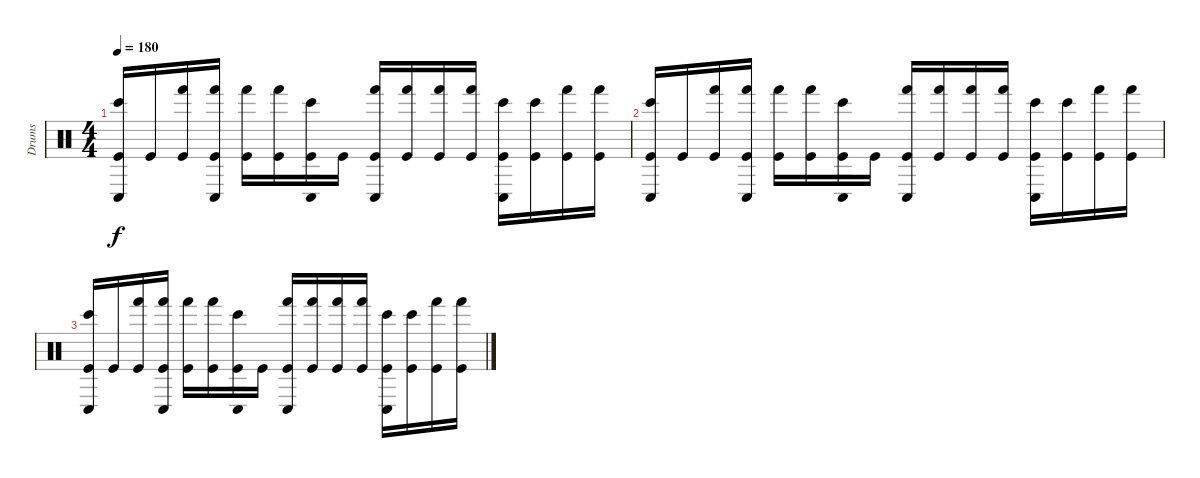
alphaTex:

\track ("Drums" "Drums") {instrument percussion}
\staff {score}
\articulation defaults
\ts (4 4)
\tempo 180
\clef neutral
\ks c
("Bongo High (hit)" "Conga low (hit)" "Kick (hit)").16{dy f} "Kick (hit)".16 ("Hand (hit)" "Kick (hit)").16 ("Hand (hit)" "Conga low (hit)" "Kick (hit)").16 ("Hand (hit)" "Kick (hit)").16 ("Hand (hit)" "Kick (hit)").16 ("Bongo High (hit)" "Conga low (hit)" "Kick (hit)").16 "Kick (hit)".16 ("Hand (hit)" "Conga low (hit)" "Kick (hit)").16 ("Hand (hit)" "Kick (hit)").16 ("Hand (hit)" "Kick (hit)").16 ("Hand (hit)" "Kick (hit)").16 ("Bongo High (hit)" "Conga low (hit)" "Kick (hit)").16 ("Bongo High (hit)" "Kick (hit)").16 ("Hand (hit)" "Kick (hit)").16 ("Hand (hit)" "Kick (hit)").16 |
("Bongo High (hit)" "Conga low (hit)" "Kick (hit)").16{volume 0} "Kick (hit)".16 ("Hand (hit)" "Kick (hit)").16 ("Hand (hit)" "Conga low (hit)" "Kick (hit)").16 ("Hand (hit)" "Kick (hit)").16 ("Hand (hit)" "Kick (hit)").16 ("Bongo High (hit)" "Conga low (hit)" "Kick (hit)").16 "Kick (hit)".16 ("Hand (hit)" "Conga low (hit)" "Kick (hit)").16 ("Hand (hit)" "Kick (hit)").16 ("Hand (hit)" "Kick (hit)").16 ("Hand (hit)" "Kick (hit)").16 ("Bongo High (hit)" "Conga low (hit)" "Kick (hit)").16 ("Bongo High (hit)" "Kick (hit)").16 ("Hand (hit)" "Kick (hit)").16 ("Hand (hit)" "Kick (hit)").16 |
("Bongo High (hit)" "Conga low (hit)" "Kick (hit)").16 "Kick (hit)".16 ("Hand (hit)" "Kick (hit)").16 ("Hand (hit)" "Conga low (hit)" "Kick (hit)").16 ("Hand (hit)" "Kick (hit)").16 ("Hand (hit)" "Kick (hit)").16 ("Bongo High (hit)" "Conga low (hit)" "Kick (hit)").16 "Kick (hit)".16 ("Hand (hit)" "Conga low (hit)" "Kick (hit)").16 ("Hand (hit)" "Kick (hit)").16 ("Hand (hit)" "Kick (hit)").16 ("Hand (hit)" "Kick (hit)").16 ("Bongo High (hit)" "Conga low (hit)" "Kick (hit)").16 ("Bongo High (hit)" "Kick (hit)").16 ("Hand (hit)" "Kick (hit)").16 ("Hand (hit)" "Kick (hit)").16
